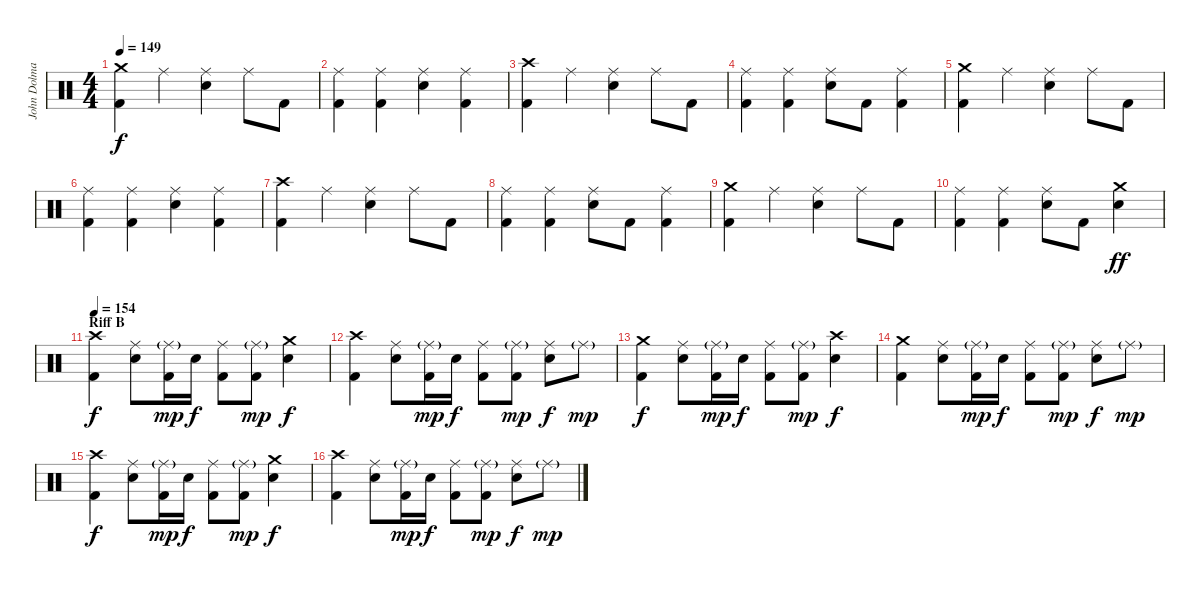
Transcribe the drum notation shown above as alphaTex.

\track ("John Dolmayan" "John Dolma") {instrument percussion}
\staff {score}
\articulation defaults
\ts (4 4)
\tempo 149
\clef neutral
\ks c
("Crash medium (hit)" "Kick (hit) 2").4{dy f} "Ride (middle)".4 ("Ride (middle)" "Electric Snare (hit)").4 "Ride (middle)".8 "Kick (hit) 2".8 |
("Ride (middle)" "Kick (hit) 2").4 ("Ride (middle)" "Kick (hit) 2").4 ("Ride (middle)" "Electric Snare (hit)").4 ("Ride (middle)" "Kick (hit) 2").4 |
("Crash high (hit)" "Kick (hit) 2").4 "Ride (middle)".4 ("Ride (middle)" "Electric Snare (hit)").4 "Ride (middle)".8 "Kick (hit) 2".8 |
("Ride (middle)" "Kick (hit) 2").4 ("Ride (middle)" "Kick (hit) 2").4 ("Ride (middle)" "Electric Snare (hit)").8 "Kick (hit) 2".8 ("Ride (middle)" "Kick (hit) 2").4 |
("Crash medium (hit)" "Kick (hit) 2").4 "Ride (middle)".4 ("Ride (middle)" "Electric Snare (hit)").4 "Ride (middle)".8 "Kick (hit) 2".8 |
("Ride (middle)" "Kick (hit) 2").4 ("Ride (middle)" "Kick (hit) 2").4 ("Ride (middle)" "Electric Snare (hit)").4 ("Ride (middle)" "Kick (hit) 2").4 |
("Crash high (hit)" "Kick (hit) 2").4 "Ride (middle)".4 ("Ride (middle)" "Electric Snare (hit)").4 "Ride (middle)".8 "Kick (hit) 2".8 |
("Ride (middle)" "Kick (hit) 2").4 ("Ride (middle)" "Kick (hit) 2").4 ("Ride (middle)" "Electric Snare (hit)").8 "Kick (hit) 2".8 ("Ride (middle)" "Kick (hit) 2").4 |
("Crash medium (hit)" "Kick (hit) 2").4 "Ride (middle)".4 ("Ride (middle)" "Electric Snare (hit)").4 "Ride (middle)".8 "Kick (hit) 2".8 |
("Ride (middle)" "Kick (hit) 2").4 ("Ride (middle)" "Kick (hit) 2").4 ("Ride (middle)" "Electric Snare (hit)").8 "Kick (hit) 2".8 ("Crash medium (hit)" "Electric Snare (hit)").4{dy ff} |
\section ("" "Riff B")
\tempo 154
("Crash high (hit)" "Kick (hit) 2").4{dy f} ("Ride (middle)" "Electric Snare (hit)").8 ("Ride (middle)"{g} "Kick (hit) 2").16{dy mp} "Electric Snare (hit)".16{dy f} ("Ride (middle)" "Kick (hit) 2").8 ("Ride (middle)"{g} "Kick (hit) 2").8{dy mp} ("Crash medium (hit)" "Electric Snare (hit)").4{dy f} |
("Crash high (hit)" "Kick (hit) 2").4 ("Ride (middle)" "Electric Snare (hit)").8 ("Ride (middle)"{g} "Kick (hit) 2").16{dy mp} "Electric Snare (hit)".16{dy f} ("Ride (middle)" "Kick (hit) 2").8 ("Ride (middle)"{g} "Kick (hit) 2").8{dy mp} ("Ride (middle)" "Electric Snare (hit)").8{dy f} "Ride (middle)"{g}.8{dy mp} |
("Crash medium (hit)" "Kick (hit) 2").4{dy f} ("Ride (middle)" "Electric Snare (hit)").8 ("Ride (middle)"{g} "Kick (hit) 2").16{dy mp} "Electric Snare (hit)".16{dy f} ("Ride (middle)" "Kick (hit) 2").8 ("Ride (middle)"{g} "Kick (hit) 2").8{dy mp} ("Crash high (hit)" "Electric Snare (hit)").4{dy f} |
("Crash medium (hit)" "Kick (hit) 2").4 ("Ride (middle)" "Electric Snare (hit)").8 ("Ride (middle)"{g} "Kick (hit) 2").16{dy mp} "Electric Snare (hit)".16{dy f} ("Ride (middle)" "Kick (hit) 2").8 ("Ride (middle)"{g} "Kick (hit) 2").8{dy mp} ("Ride (middle)" "Electric Snare (hit)").8{dy f} "Ride (middle)"{g}.8{dy mp} |
("Crash high (hit)" "Kick (hit) 2").4{dy f} ("Ride (middle)" "Electric Snare (hit)").8 ("Ride (middle)"{g} "Kick (hit) 2").16{dy mp} "Electric Snare (hit)".16{dy f} ("Ride (middle)" "Kick (hit) 2").8 ("Ride (middle)"{g} "Kick (hit) 2").8{dy mp} ("Crash medium (hit)" "Electric Snare (hit)").4{dy f} |
("Crash high (hit)" "Kick (hit) 2").4 ("Ride (middle)" "Electric Snare (hit)").8 ("Ride (middle)"{g} "Kick (hit) 2").16{dy mp} "Electric Snare (hit)".16{dy f} ("Ride (middle)" "Kick (hit) 2").8 ("Ride (middle)"{g} "Kick (hit) 2").8{dy mp} ("Ride (middle)" "Electric Snare (hit)").8{dy f} "Ride (middle)"{g}.8{dy mp}
